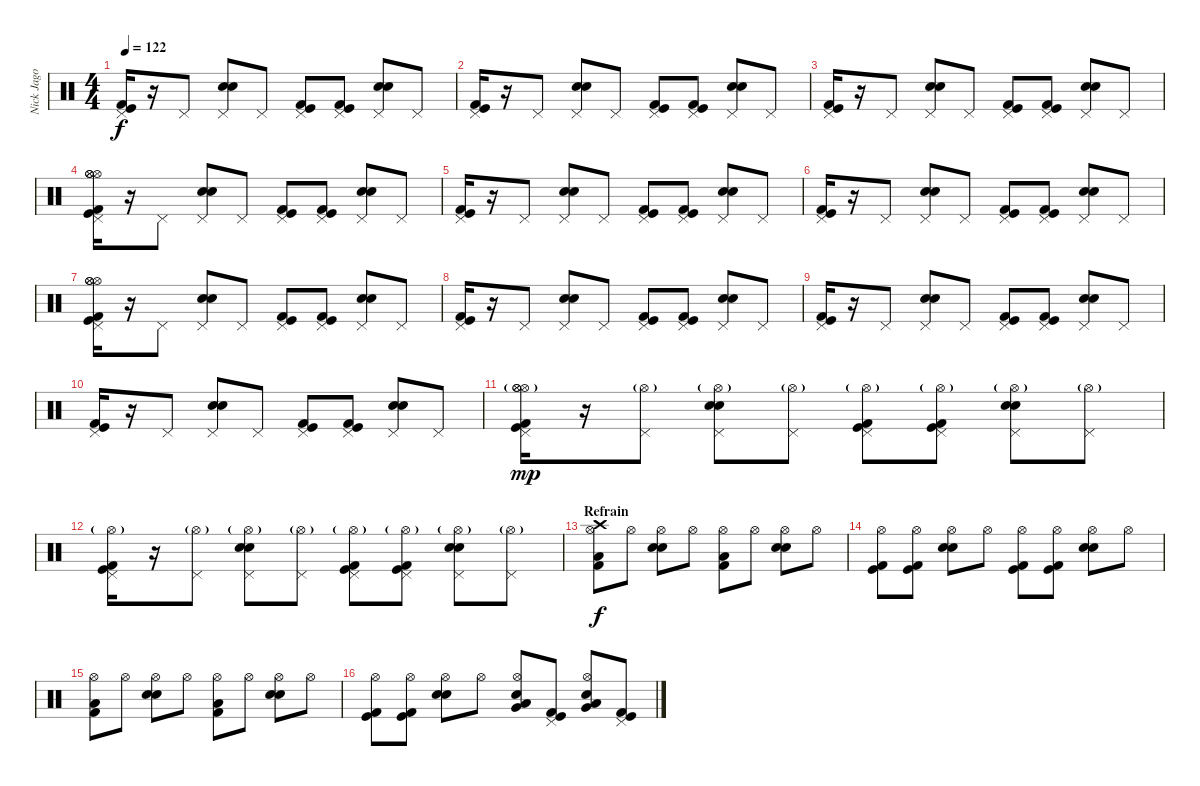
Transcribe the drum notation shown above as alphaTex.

\track ("Nick Jago - Drums" "Nick Jago ") {instrument percussion}
\staff {score}
\articulation defaults
\ts (4 4)
\tempo 122
\clef neutral
\ks c
("Pedal Hi-Hat (hit)" "Kick (hit)" "Kick (hit) 2").16{dy f} r.16 "Pedal Hi-Hat (hit)".8 ("Pedal Hi-Hat (hit)" "Snare (hit) 2" "Electric Snare (hit)").8 "Pedal Hi-Hat (hit)".8 ("Pedal Hi-Hat (hit)" "Kick (hit)" "Kick (hit) 2").8 ("Pedal Hi-Hat (hit)" "Kick (hit)" "Kick (hit) 2").8 ("Pedal Hi-Hat (hit)" "Snare (hit) 2" "Electric Snare (hit)").8 "Pedal Hi-Hat (hit)".8 |
("Pedal Hi-Hat (hit)" "Kick (hit)" "Kick (hit) 2").16 r.16 "Pedal Hi-Hat (hit)".8 ("Pedal Hi-Hat (hit)" "Snare (hit) 2" "Electric Snare (hit)").8 "Pedal Hi-Hat (hit)".8 ("Pedal Hi-Hat (hit)" "Kick (hit)" "Kick (hit) 2").8 ("Pedal Hi-Hat (hit)" "Kick (hit)" "Kick (hit) 2").8 ("Pedal Hi-Hat (hit)" "Snare (hit) 2" "Electric Snare (hit)").8 "Pedal Hi-Hat (hit)".8 |
("Pedal Hi-Hat (hit)" "Kick (hit)" "Kick (hit) 2").16 r.16 "Pedal Hi-Hat (hit)".8 ("Pedal Hi-Hat (hit)" "Snare (hit) 2" "Electric Snare (hit)").8 "Pedal Hi-Hat (hit)".8 ("Pedal Hi-Hat (hit)" "Kick (hit)" "Kick (hit) 2").8 ("Pedal Hi-Hat (hit)" "Kick (hit)" "Kick (hit) 2").8 ("Pedal Hi-Hat (hit)" "Snare (hit) 2" "Electric Snare (hit)").8 "Pedal Hi-Hat (hit)".8 |
("Pedal Hi-Hat (hit)" "Hi-Hat (open)" "Hi-Hat (open)" "Hi-Hat (open)" "Kick (hit)" "Kick (hit) 2").16 r.16 "Pedal Hi-Hat (hit)".8 ("Pedal Hi-Hat (hit)" "Snare (hit) 2" "Electric Snare (hit)").8 "Pedal Hi-Hat (hit)".8 ("Pedal Hi-Hat (hit)" "Kick (hit)" "Kick (hit) 2").8 ("Pedal Hi-Hat (hit)" "Kick (hit)" "Kick (hit) 2").8 ("Pedal Hi-Hat (hit)" "Snare (hit) 2" "Electric Snare (hit)").8 "Pedal Hi-Hat (hit)".8 |
("Pedal Hi-Hat (hit)" "Kick (hit)" "Kick (hit) 2").16 r.16 "Pedal Hi-Hat (hit)".8 ("Pedal Hi-Hat (hit)" "Snare (hit) 2" "Electric Snare (hit)").8 "Pedal Hi-Hat (hit)".8 ("Pedal Hi-Hat (hit)" "Kick (hit)" "Kick (hit) 2").8 ("Pedal Hi-Hat (hit)" "Kick (hit)" "Kick (hit) 2").8 ("Pedal Hi-Hat (hit)" "Snare (hit) 2" "Electric Snare (hit)").8 "Pedal Hi-Hat (hit)".8 |
("Pedal Hi-Hat (hit)" "Kick (hit)" "Kick (hit) 2").16 r.16 "Pedal Hi-Hat (hit)".8 ("Pedal Hi-Hat (hit)" "Snare (hit) 2" "Electric Snare (hit)").8 "Pedal Hi-Hat (hit)".8 ("Pedal Hi-Hat (hit)" "Kick (hit)" "Kick (hit) 2").8 ("Pedal Hi-Hat (hit)" "Kick (hit)" "Kick (hit) 2").8 ("Pedal Hi-Hat (hit)" "Snare (hit) 2" "Electric Snare (hit)").8 "Pedal Hi-Hat (hit)".8 |
("Pedal Hi-Hat (hit)" "Hi-Hat (open)" "Hi-Hat (open)" "Hi-Hat (open)" "Kick (hit)" "Kick (hit) 2").16 r.16 "Pedal Hi-Hat (hit)".8 ("Pedal Hi-Hat (hit)" "Snare (hit) 2" "Electric Snare (hit)").8 "Pedal Hi-Hat (hit)".8 ("Pedal Hi-Hat (hit)" "Kick (hit)" "Kick (hit) 2").8 ("Pedal Hi-Hat (hit)" "Kick (hit)" "Kick (hit) 2").8 ("Pedal Hi-Hat (hit)" "Snare (hit) 2" "Electric Snare (hit)").8 "Pedal Hi-Hat (hit)".8 |
("Pedal Hi-Hat (hit)" "Kick (hit)" "Kick (hit) 2").16 r.16 "Pedal Hi-Hat (hit)".8 ("Pedal Hi-Hat (hit)" "Snare (hit) 2" "Electric Snare (hit)").8 "Pedal Hi-Hat (hit)".8 ("Pedal Hi-Hat (hit)" "Kick (hit)" "Kick (hit) 2").8 ("Pedal Hi-Hat (hit)" "Kick (hit)" "Kick (hit) 2").8 ("Pedal Hi-Hat (hit)" "Snare (hit) 2" "Electric Snare (hit)").8 "Pedal Hi-Hat (hit)".8 |
("Pedal Hi-Hat (hit)" "Kick (hit)" "Kick (hit) 2").16 r.16 "Pedal Hi-Hat (hit)".8 ("Pedal Hi-Hat (hit)" "Snare (hit) 2" "Electric Snare (hit)").8 "Pedal Hi-Hat (hit)".8 ("Pedal Hi-Hat (hit)" "Kick (hit)" "Kick (hit) 2").8 ("Pedal Hi-Hat (hit)" "Kick (hit)" "Kick (hit) 2").8 ("Pedal Hi-Hat (hit)" "Snare (hit) 2" "Electric Snare (hit)").8 "Pedal Hi-Hat (hit)".8 |
("Pedal Hi-Hat (hit)" "Kick (hit)" "Kick (hit) 2").16 r.16 "Pedal Hi-Hat (hit)".8 ("Pedal Hi-Hat (hit)" "Snare (hit) 2" "Electric Snare (hit)").8 "Pedal Hi-Hat (hit)".8 ("Pedal Hi-Hat (hit)" "Kick (hit)" "Kick (hit) 2").8 ("Pedal Hi-Hat (hit)" "Kick (hit)" "Kick (hit) 2").8 ("Pedal Hi-Hat (hit)" "Snare (hit) 2" "Electric Snare (hit)").8 "Pedal Hi-Hat (hit)".8 |
("Pedal Hi-Hat (hit)" "Hi-Hat (open)"{g} "Hi-Hat (open)" "Hi-Hat (open)" "Kick (hit)" "Kick (hit) 2").16{dy mp} r.16 ("Pedal Hi-Hat (hit)" "Hi-Hat (open)"{g}).8 ("Pedal Hi-Hat (hit)" "Hi-Hat (open)"{g} "Snare (hit) 2" "Electric Snare (hit)").8 ("Pedal Hi-Hat (hit)" "Hi-Hat (open)"{g}).8 ("Pedal Hi-Hat (hit)" "Hi-Hat (open)"{g} "Kick (hit)" "Kick (hit) 2").8 ("Pedal Hi-Hat (hit)" "Hi-Hat (open)"{g} "Kick (hit)" "Kick (hit) 2").8 ("Pedal Hi-Hat (hit)" "Hi-Hat (open)"{g} "Snare (hit) 2" "Electric Snare (hit)").8 ("Pedal Hi-Hat (hit)" "Hi-Hat (open)"{g}).8 |
("Pedal Hi-Hat (hit)" "Hi-Hat (open)"{g} "Kick (hit)" "Kick (hit) 2").16 r.16 ("Pedal Hi-Hat (hit)" "Hi-Hat (open)"{g}).8 ("Pedal Hi-Hat (hit)" "Hi-Hat (open)"{g} "Snare (hit) 2" "Electric Snare (hit)").8 ("Pedal Hi-Hat (hit)" "Hi-Hat (open)"{g}).8 ("Pedal Hi-Hat (hit)" "Hi-Hat (open)"{g} "Kick (hit)" "Kick (hit) 2").8 ("Pedal Hi-Hat (hit)" "Hi-Hat (open)"{g} "Kick (hit)" "Kick (hit) 2").8 ("Pedal Hi-Hat (hit)" "Hi-Hat (open)"{g} "Snare (hit) 2" "Electric Snare (hit)").8 ("Pedal Hi-Hat (hit)" "Hi-Hat (open)"{g}).8 |
\section ("" "Refrain")
("Hi-Hat (open)" "Crash high (hit)" "Low Floor Tom (hit)" "Kick (hit) 2").8{dy f} "Hi-Hat (open)".8 ("Hi-Hat (open)" "Snare (hit) 2" "Electric Snare (hit)").8 "Hi-Hat (open)".8 ("Hi-Hat (open)" "Low Floor Tom (hit)" "Kick (hit) 2").8 "Hi-Hat (open)".8 ("Hi-Hat (open)" "Snare (hit) 2" "Electric Snare (hit)").8 "Hi-Hat (open)".8 |
("Hi-Hat (open)" "Kick (hit)" "Kick (hit) 2").8 ("Hi-Hat (open)" "Kick (hit)" "Kick (hit) 2").8 ("Hi-Hat (open)" "Snare (hit) 2" "Electric Snare (hit)").8 "Hi-Hat (open)".8 ("Hi-Hat (open)" "Kick (hit)" "Kick (hit) 2").8 ("Hi-Hat (open)" "Kick (hit)" "Kick (hit) 2").8 ("Hi-Hat (open)" "Snare (hit) 2" "Electric Snare (hit)").8 "Hi-Hat (open)".8 |
("Hi-Hat (open)" "Low Floor Tom (hit)" "Kick (hit) 2").8 "Hi-Hat (open)".8 ("Hi-Hat (open)" "Snare (hit) 2" "Electric Snare (hit)").8 "Hi-Hat (open)".8 ("Hi-Hat (open)" "Low Floor Tom (hit)" "Kick (hit) 2").8 "Hi-Hat (open)".8 ("Hi-Hat (open)" "Snare (hit) 2" "Electric Snare (hit)").8 "Hi-Hat (open)".8 |
("Hi-Hat (open)" "Kick (hit)" "Kick (hit) 2").8 ("Hi-Hat (open)" "Kick (hit)" "Kick (hit) 2").8 ("Hi-Hat (open)" "Snare (hit) 2" "Electric Snare (hit)").8 "Hi-Hat (open)".8 ("Hi-Hat (open)" "Electric Snare (hit)" "Low Floor Tom (hit)" "Very Low Tom (hit)").8 ("Pedal Hi-Hat (hit)" "Kick (hit)" "Kick (hit) 2").8 ("Hi-Hat (open)" "Electric Snare (hit)" "Very Low Tom (hit)" "Low Floor Tom (hit)").8 ("Pedal Hi-Hat (hit)" "Kick (hit)" "Kick (hit) 2").8
